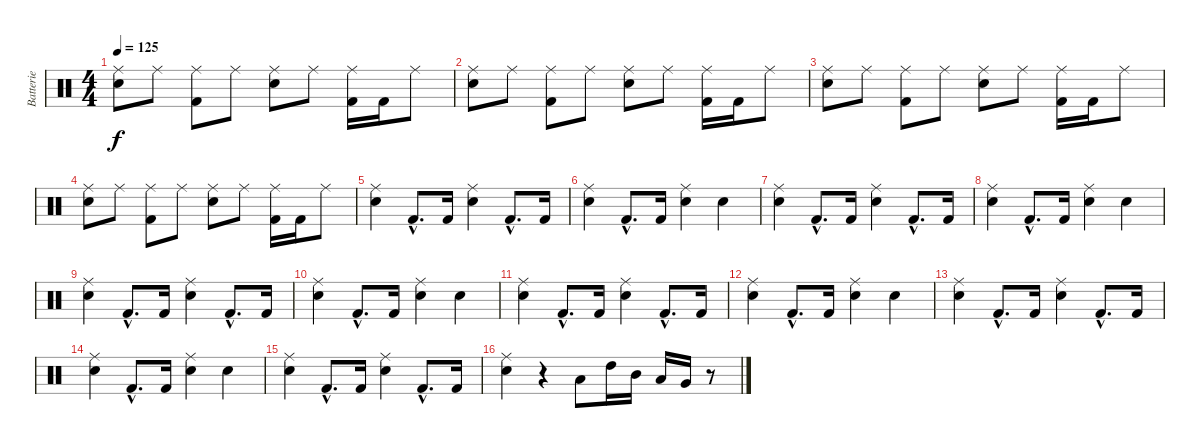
\track ("Batterie" "Batterie") {instrument percussion}
\staff {score}
\articulation defaults
\ts (4 4)
\tempo 125
\clef neutral
\ks c
("Ride (middle)" "Snare (hit) 2").8{dy f} "Ride (middle)".8 ("Ride (middle)" "Kick (hit) 2").8 "Ride (middle)".8 ("Ride (middle)" "Snare (hit) 2").8 "Ride (middle)".8 ("Ride (middle)" "Kick (hit) 2").16 "Kick (hit) 2".16 "Ride (middle)".8 |
("Ride (middle)" "Snare (hit) 2").8 "Ride (middle)".8 ("Ride (middle)" "Kick (hit) 2").8 "Ride (middle)".8 ("Ride (middle)" "Snare (hit) 2").8 "Ride (middle)".8 ("Ride (middle)" "Kick (hit) 2").16 "Kick (hit) 2".16 "Ride (middle)".8 |
("Ride (middle)" "Snare (hit) 2").8 "Ride (middle)".8 ("Ride (middle)" "Kick (hit) 2").8 "Ride (middle)".8 ("Ride (middle)" "Snare (hit) 2").8 "Ride (middle)".8 ("Ride (middle)" "Kick (hit) 2").16 "Kick (hit) 2".16 "Ride (middle)".8 |
("Ride (middle)" "Snare (hit) 2").8 "Ride (middle)".8 ("Ride (middle)" "Kick (hit) 2").8 "Ride (middle)".8 ("Ride (middle)" "Snare (hit) 2").8 "Ride (middle)".8 ("Ride (middle)" "Kick (hit) 2").16 "Kick (hit) 2".16 "Ride (middle)".8 |
\section ("" "")
("Snare (hit) 2" "Ride (middle)").4 "Kick (hit) 2"{hac}.8{d} "Kick (hit) 2".16 ("Snare (hit) 2" "Ride (middle)").4 "Kick (hit) 2"{hac}.8{d} "Kick (hit) 2".16 |
("Snare (hit) 2" "Ride (middle)").4 "Kick (hit) 2"{hac}.8{d} "Kick (hit) 2".16 ("Snare (hit) 2" "Ride (middle)").4 "Snare (hit) 2".4 |
("Snare (hit) 2" "Ride (middle)").4 "Kick (hit) 2"{hac}.8{d} "Kick (hit) 2".16 ("Snare (hit) 2" "Ride (middle)").4 "Kick (hit) 2"{hac}.8{d} "Kick (hit) 2".16 |
("Snare (hit) 2" "Ride (middle)").4 "Kick (hit) 2"{hac}.8{d} "Kick (hit) 2".16 ("Snare (hit) 2" "Ride (middle)").4 "Snare (hit) 2".4 |
\section ("" "")
("Snare (hit) 2" "Ride (middle)").4 "Kick (hit) 2"{hac}.8{d} "Kick (hit) 2".16 ("Snare (hit) 2" "Ride (middle)").4 "Kick (hit) 2"{hac}.8{d} "Kick (hit) 2".16 |
("Snare (hit) 2" "Ride (middle)").4 "Kick (hit) 2"{hac}.8{d} "Kick (hit) 2".16 ("Snare (hit) 2" "Ride (middle)").4 "Snare (hit) 2".4 |
("Snare (hit) 2" "Ride (middle)").4 "Kick (hit) 2"{hac}.8{d} "Kick (hit) 2".16 ("Snare (hit) 2" "Ride (middle)").4 "Kick (hit) 2"{hac}.8{d} "Kick (hit) 2".16 |
("Snare (hit) 2" "Ride (middle)").4 "Kick (hit) 2"{hac}.8{d} "Kick (hit) 2".16 ("Snare (hit) 2" "Ride (middle)").4 "Snare (hit) 2".4 |
("Snare (hit) 2" "Ride (middle)").4 "Kick (hit) 2"{hac}.8{d} "Kick (hit) 2".16 ("Snare (hit) 2" "Ride (middle)").4 "Kick (hit) 2"{hac}.8{d} "Kick (hit) 2".16 |
("Snare (hit) 2" "Ride (middle)").4 "Kick (hit) 2"{hac}.8{d} "Kick (hit) 2".16 ("Snare (hit) 2" "Ride (middle)").4 "Snare (hit) 2".4 |
("Snare (hit) 2" "Ride (middle)").4 "Kick (hit) 2"{hac}.8{d} "Kick (hit) 2".16 ("Snare (hit) 2" "Ride (middle)").4 "Kick (hit) 2"{hac}.8{d} "Kick (hit) 2".16 |
("Snare (hit) 2" "Ride (middle)").4 r.4 "Low Tom (hit)".8 "High Tom (hit)".16 "Mid Tom (hit)".16 "Low Tom (hit)".16 "Very Low Tom (hit)".16 r.8
